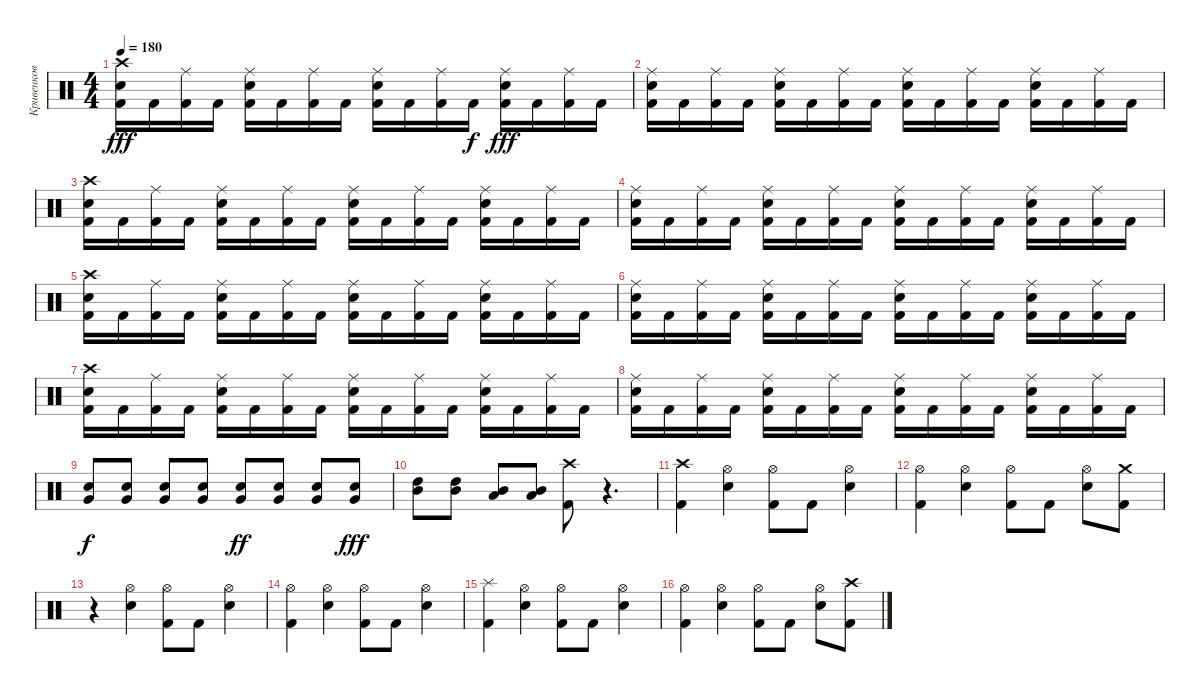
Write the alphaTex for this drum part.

\track ("Кривенков" "Кривенков") {instrument percussion}
\staff {score}
\articulation defaults
\ts (4 4)
\tempo 180
\clef neutral
\ks c
("Kick (hit) 2" "Crash high (hit)" "Snare (hit) 2").16{dy fff} "Kick (hit) 2".16 ("Ride (middle)" "Kick (hit) 2").16 "Kick (hit) 2".16 ("Snare (hit) 2" "Kick (hit) 2" "Ride (middle)").16 "Kick (hit) 2".16 ("Kick (hit) 2" "Ride (middle)").16 "Kick (hit) 2".16 ("Snare (hit) 2" "Kick (hit) 2" "Ride (middle)").16 "Kick (hit) 2".16 ("Kick (hit) 2" "Ride (middle)").16 "Kick (hit) 2".16{dy f} ("Ride (middle)" "Kick (hit) 2" "Snare (hit) 2").16{dy fff} "Kick (hit) 2".16 ("Kick (hit) 2" "Ride (middle)").16 "Kick (hit) 2".16 |
("Snare (hit) 2" "Kick (hit) 2" "Ride (middle)").16 "Kick (hit) 2".16 ("Kick (hit) 2" "Ride (middle)").16 "Kick (hit) 2".16 ("Snare (hit) 2" "Kick (hit) 2" "Ride (middle)").16 "Kick (hit) 2".16 ("Kick (hit) 2" "Ride (middle)").16 "Kick (hit) 2".16 ("Snare (hit) 2" "Kick (hit) 2" "Ride (middle)").16 "Kick (hit) 2".16 ("Kick (hit) 2" "Ride (middle)").16 "Kick (hit) 2".16 ("Snare (hit) 2" "Kick (hit) 2" "Ride (middle)").16 "Kick (hit) 2".16 ("Kick (hit) 2" "Ride (middle)").16 "Kick (hit) 2".16 |
("Kick (hit) 2" "Crash high (hit)" "Snare (hit) 2").16 "Kick (hit) 2".16 ("Ride (middle)" "Kick (hit) 2").16 "Kick (hit) 2".16 ("Snare (hit) 2" "Kick (hit) 2" "Ride (middle)").16 "Kick (hit) 2".16 ("Kick (hit) 2" "Ride (middle)").16 "Kick (hit) 2".16 ("Snare (hit) 2" "Kick (hit) 2" "Ride (middle)").16 "Kick (hit) 2".16 ("Kick (hit) 2" "Ride (middle)").16 "Kick (hit) 2".16 ("Ride (middle)" "Kick (hit) 2" "Snare (hit) 2").16 "Kick (hit) 2".16 ("Kick (hit) 2" "Ride (middle)").16 "Kick (hit) 2".16 |
("Snare (hit) 2" "Kick (hit) 2" "Ride (middle)").16 "Kick (hit) 2".16 ("Kick (hit) 2" "Ride (middle)").16 "Kick (hit) 2".16 ("Snare (hit) 2" "Kick (hit) 2" "Ride (middle)").16 "Kick (hit) 2".16 ("Kick (hit) 2" "Ride (middle)").16 "Kick (hit) 2".16 ("Snare (hit) 2" "Kick (hit) 2" "Ride (middle)").16 "Kick (hit) 2".16 ("Kick (hit) 2" "Ride (middle)").16 "Kick (hit) 2".16 ("Snare (hit) 2" "Kick (hit) 2" "Ride (middle)").16 "Kick (hit) 2".16 ("Kick (hit) 2" "Ride (middle)").16 "Kick (hit) 2".16 |
("Kick (hit) 2" "Crash high (hit)" "Snare (hit) 2").16 "Kick (hit) 2".16 ("Ride (middle)" "Kick (hit) 2").16 "Kick (hit) 2".16 ("Snare (hit) 2" "Kick (hit) 2" "Ride (middle)").16 "Kick (hit) 2".16 ("Kick (hit) 2" "Ride (middle)").16 "Kick (hit) 2".16 ("Snare (hit) 2" "Kick (hit) 2" "Ride (middle)").16 "Kick (hit) 2".16 ("Kick (hit) 2" "Ride (middle)").16 "Kick (hit) 2".16 ("Ride (middle)" "Kick (hit) 2" "Snare (hit) 2").16 "Kick (hit) 2".16 ("Kick (hit) 2" "Ride (middle)").16 "Kick (hit) 2".16 |
("Snare (hit) 2" "Kick (hit) 2" "Ride (middle)").16 "Kick (hit) 2".16 ("Kick (hit) 2" "Ride (middle)").16 "Kick (hit) 2".16 ("Snare (hit) 2" "Kick (hit) 2" "Ride (middle)").16 "Kick (hit) 2".16 ("Kick (hit) 2" "Ride (middle)").16 "Kick (hit) 2".16 ("Snare (hit) 2" "Kick (hit) 2" "Ride (middle)").16 "Kick (hit) 2".16 ("Kick (hit) 2" "Ride (middle)").16 "Kick (hit) 2".16 ("Snare (hit) 2" "Kick (hit) 2" "Ride (middle)").16 "Kick (hit) 2".16 ("Kick (hit) 2" "Ride (middle)").16 "Kick (hit) 2".16 |
("Kick (hit) 2" "Crash high (hit)" "Snare (hit) 2").16 "Kick (hit) 2".16 ("Ride (middle)" "Kick (hit) 2").16 "Kick (hit) 2".16 ("Snare (hit) 2" "Kick (hit) 2" "Ride (middle)").16 "Kick (hit) 2".16 ("Kick (hit) 2" "Ride (middle)").16 "Kick (hit) 2".16 ("Snare (hit) 2" "Kick (hit) 2" "Ride (middle)").16 "Kick (hit) 2".16 ("Kick (hit) 2" "Ride (middle)").16 "Kick (hit) 2".16 ("Ride (middle)" "Kick (hit) 2" "Snare (hit) 2").16 "Kick (hit) 2".16 ("Kick (hit) 2" "Ride (middle)").16 "Kick (hit) 2".16 |
("Snare (hit) 2" "Kick (hit) 2" "Ride (middle)").16 "Kick (hit) 2".16 ("Kick (hit) 2" "Ride (middle)").16 "Kick (hit) 2".16 ("Snare (hit) 2" "Kick (hit) 2" "Ride (middle)").16 "Kick (hit) 2".16 ("Kick (hit) 2" "Ride (middle)").16 "Kick (hit) 2".16 ("Snare (hit) 2" "Kick (hit) 2" "Ride (middle)").16 "Kick (hit) 2".16 ("Kick (hit) 2" "Ride (middle)").16 "Kick (hit) 2".16 ("Snare (hit) 2" "Kick (hit) 2" "Ride (middle)").16 "Kick (hit) 2".16 ("Kick (hit) 2" "Ride (middle)").16 "Kick (hit) 2".16 |
("Very Low Tom (hit)" "Snare (hit) 2").8{dy f} ("Very Low Tom (hit)" "Snare (hit) 2").8 ("Very Low Tom (hit)" "Snare (hit) 2").8 ("Very Low Tom (hit)" "Snare (hit) 2").8 ("Very Low Tom (hit)" "Snare (hit) 2").8{dy ff} ("Very Low Tom (hit)" "Snare (hit) 2").8 ("Very Low Tom (hit)" "Snare (hit) 2").8 ("Very Low Tom (hit)" "Snare (hit) 2").8{dy fff} |
("Mid Tom (hit)" "High Tom (hit)").8 ("Mid Tom (hit)" "High Tom (hit)").8 ("Low Tom (hit)" "Mid Tom (hit)").8 ("Low Tom (hit)" "Mid Tom (hit)").8 ("Crash high (hit)" "Kick (hit) 2").8 r.4{d} |
("Kick (hit) 2" "Crash high (hit)").4 ("Hi-Hat (open)" "Snare (hit) 2").4 ("Kick (hit) 2" "Hi-Hat (open)").8 "Kick (hit) 2".8 ("Snare (hit) 2" "Hi-Hat (open)").4 |
("Hi-Hat (open)" "Kick (hit) 2").4 ("Snare (hit) 2" "Hi-Hat (open)").4 ("Kick (hit) 2" "Hi-Hat (open)").8 "Kick (hit) 2".8 ("Hi-Hat (open)" "Snare (hit) 2").8 ("Kick (hit) 2" "Crash medium (hit)").8 |
r.4 ("Snare (hit) 2" "Hi-Hat (open)").4 ("Kick (hit) 2" "Hi-Hat (open)").8 "Kick (hit) 2".8 ("Hi-Hat (open)" "Snare (hit) 2").4 |
("Kick (hit) 2" "Hi-Hat (open)").4 ("Hi-Hat (open)" "Snare (hit) 2").4 ("Kick (hit) 2" "Hi-Hat (open)").8 "Kick (hit) 2".8 ("Hi-Hat (open)" "Snare (hit) 2").4 |
("Kick (hit) 2" "Splash (hit)").4 ("Hi-Hat (open)" "Snare (hit) 2").4 ("Hi-Hat (open)" "Kick (hit) 2").8 "Kick (hit) 2".8 ("Snare (hit) 2" "Hi-Hat (open)").4 |
("Kick (hit) 2" "Hi-Hat (open)").4 ("Snare (hit) 2" "Hi-Hat (open)").4 ("Hi-Hat (open)" "Kick (hit) 2").8 "Kick (hit) 2".8 ("Snare (hit) 2" "Hi-Hat (open)").8 ("Crash high (hit)" "Kick (hit) 2").8
